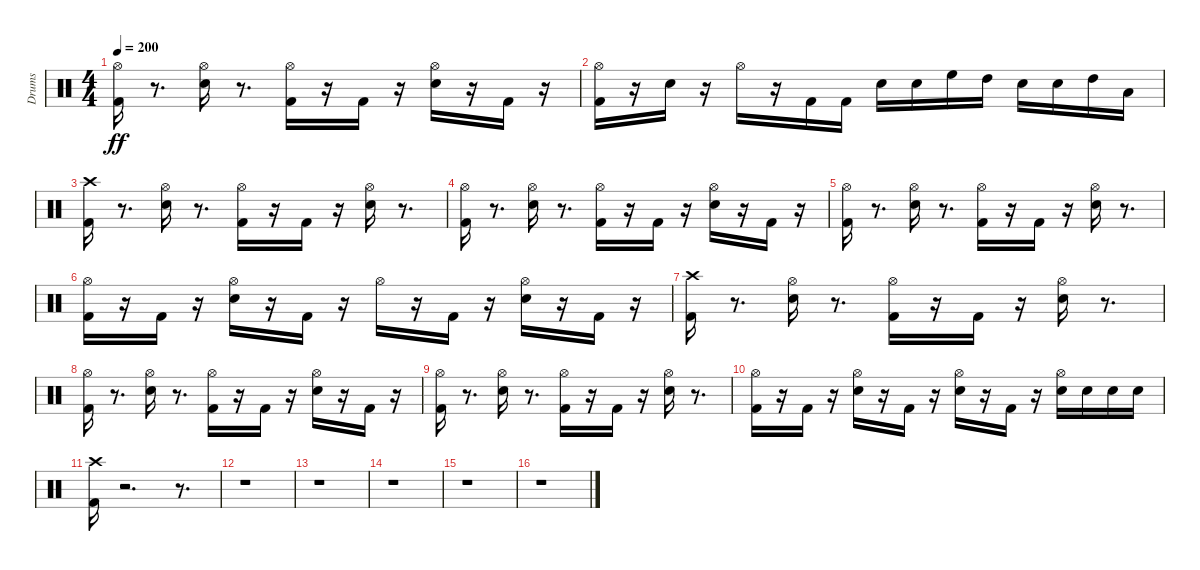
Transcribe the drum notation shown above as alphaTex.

\track ("Drums" "Drums") {instrument percussion}
\staff {score}
\articulation defaults
\ts (4 4)
\tempo 200
\clef neutral
\ks c
("Kick (hit) 2" "Hi-Hat (open)").16{dy ff} r.8{d} ("Snare (hit) 2" "Hi-Hat (open)").16 r.8{d} ("Kick (hit) 2" "Hi-Hat (open)").16 r.16 "Kick (hit) 2".16 r.16 ("Snare (hit) 2" "Hi-Hat (open)").16 r.16 "Kick (hit) 2".16 r.16 |
("Kick (hit) 2" "Hi-Hat (open)").16 r.16 "Snare (hit) 2".16 r.16 "Hi-Hat (open)".16 r.16 "Kick (hit) 2".16 "Kick (hit) 2".16 "Snare (hit) 2".16 "Snare (hit) 2".16 "High Floor Tom (hit)".16 "High Tom (hit)".16 "Snare (hit) 2".16 "Snare (hit) 2".16 "High Tom (hit)".16 "Low Tom (hit)".16 |
("Kick (hit) 2" "Crash high (hit)").16 r.8{d} ("Snare (hit) 2" "Hi-Hat (open)").16 r.8{d} ("Kick (hit) 2" "Hi-Hat (open)").16 r.16 "Kick (hit) 2".16 r.16 ("Snare (hit) 2" "Hi-Hat (open)").16 r.8{d} |
("Kick (hit) 2" "Hi-Hat (open)").16 r.8{d} ("Snare (hit) 2" "Hi-Hat (open)").16 r.8{d} ("Kick (hit) 2" "Hi-Hat (open)").16 r.16 "Kick (hit) 2".16 r.16 ("Snare (hit) 2" "Hi-Hat (open)").16 r.16 "Kick (hit) 2".16 r.16 |
("Kick (hit) 2" "Hi-Hat (open)").16 r.8{d} ("Snare (hit) 2" "Hi-Hat (open)").16 r.8{d} ("Kick (hit) 2" "Hi-Hat (open)").16 r.16 "Kick (hit) 2".16 r.16 ("Snare (hit) 2" "Hi-Hat (open)").16 r.8{d} |
("Kick (hit) 2" "Hi-Hat (open)").16 r.16 "Kick (hit) 2".16 r.16 ("Snare (hit) 2" "Hi-Hat (open)").16 r.16 "Kick (hit) 2".16 r.16 "Hi-Hat (open)".16 r.16 "Kick (hit) 2".16 r.16 ("Snare (hit) 2" "Hi-Hat (open)").16 r.16 "Kick (hit) 2".16 r.16 |
("Kick (hit) 2" "Crash high (hit)").16 r.8{d} ("Snare (hit) 2" "Hi-Hat (open)").16 r.8{d} ("Kick (hit) 2" "Hi-Hat (open)").16 r.16 "Kick (hit) 2".16 r.16 ("Snare (hit) 2" "Hi-Hat (open)").16 r.8{d} |
("Kick (hit) 2" "Hi-Hat (open)").16 r.8{d} ("Snare (hit) 2" "Hi-Hat (open)").16 r.8{d} ("Kick (hit) 2" "Hi-Hat (open)").16 r.16 "Kick (hit) 2".16 r.16 ("Snare (hit) 2" "Hi-Hat (open)").16 r.16 "Kick (hit) 2".16 r.16 |
("Kick (hit) 2" "Hi-Hat (open)").16 r.8{d} ("Snare (hit) 2" "Hi-Hat (open)").16 r.8{d} ("Kick (hit) 2" "Hi-Hat (open)").16 r.16 "Kick (hit) 2".16 r.16 ("Snare (hit) 2" "Hi-Hat (open)").16 r.8{d} |
("Kick (hit) 2" "Hi-Hat (open)").16 r.16 "Kick (hit) 2".16 r.16 ("Snare (hit) 2" "Hi-Hat (open)").16 r.16 "Kick (hit) 2".16 r.16 ("Snare (hit) 2" "Hi-Hat (open)").16 r.16 "Kick (hit) 2".16 r.16 ("Snare (hit) 2" "Hi-Hat (open)").16 "Snare (hit) 2".16 "Snare (hit) 2".16 "Snare (hit) 2".16 |
("Kick (hit) 2" "Crash high (hit)").16 r.2{d} r.8{d} |
r.1 |
r.1 |
r.1 |
r.1 |
r.1
